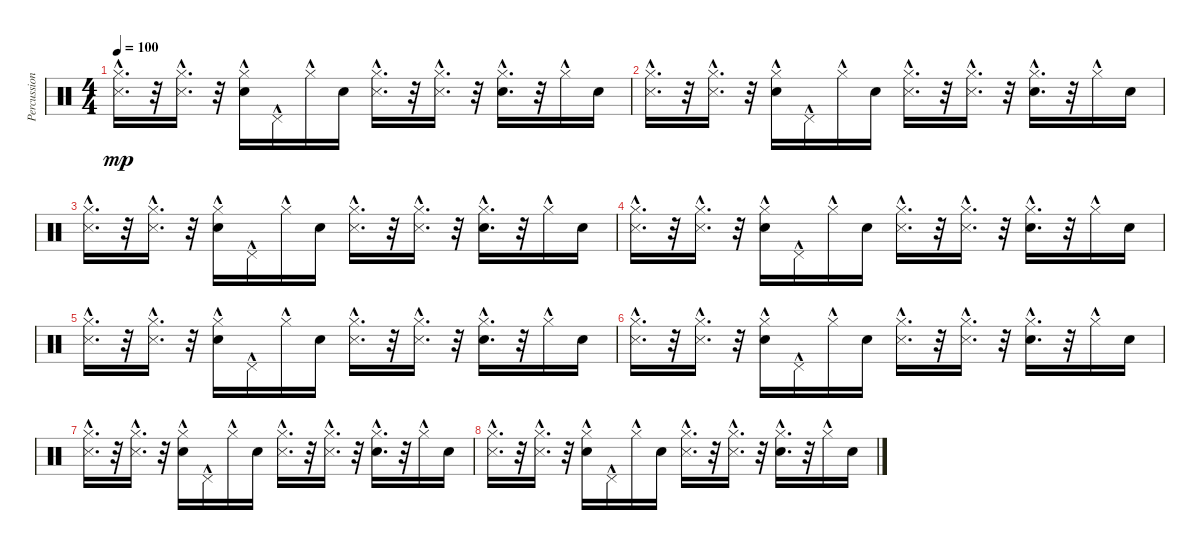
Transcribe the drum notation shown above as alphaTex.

\track ("Percussion" "Percussion") {instrument percussion}
\staff {score}
\articulation defaults
\ts (4 4)
\tempo 100
\clef neutral
\ks c
("Hi-Hat (closed)"{hac} "Metronome (hit)"{hac}).16{d dy mp} r.32 ("Hi-Hat (closed)"{hac} "Metronome (hit)").16{d} r.32 ("Hi-Hat (closed)"{hac} "Metronome (bell)").16 "Pedal Hi-Hat (hit)"{hac}.16 "Hi-Hat (closed)"{hac}.16 "Metronome (bell)".16 ("Metronome (hit)"{hac} "Hi-Hat (closed)"{hac}).16{d} r.32 ("Metronome (hit)" "Hi-Hat (closed)"{hac}).16{d} r.32 ("Metronome (bell)" "Hi-Hat (closed)"{hac}).16{d} r.32 "Hi-Hat (closed)"{hac}.16 "Metronome (bell)".16 |
("Hi-Hat (closed)"{hac} "Metronome (hit)"{hac}).16{d} r.32 ("Hi-Hat (closed)"{hac} "Metronome (hit)").16{d} r.32 ("Hi-Hat (closed)"{hac} "Metronome (bell)").16 "Pedal Hi-Hat (hit)"{hac}.16 "Hi-Hat (closed)"{hac}.16 "Metronome (bell)".16 ("Metronome (hit)"{hac} "Hi-Hat (closed)"{hac}).16{d} r.32 ("Metronome (hit)" "Hi-Hat (closed)"{hac}).16{d} r.32 ("Metronome (bell)" "Hi-Hat (closed)"{hac}).16{d} r.32 "Hi-Hat (closed)"{hac}.16 "Metronome (bell)".16 |
("Hi-Hat (closed)"{hac} "Metronome (hit)"{hac}).16{d} r.32 ("Hi-Hat (closed)"{hac} "Metronome (hit)").16{d} r.32 ("Hi-Hat (closed)"{hac} "Metronome (bell)").16 "Pedal Hi-Hat (hit)"{hac}.16 "Hi-Hat (closed)"{hac}.16 "Metronome (bell)".16 ("Metronome (hit)"{hac} "Hi-Hat (closed)"{hac}).16{d} r.32 ("Metronome (hit)" "Hi-Hat (closed)"{hac}).16{d} r.32 ("Metronome (bell)" "Hi-Hat (closed)"{hac}).16{d} r.32 "Hi-Hat (closed)"{hac}.16 "Metronome (bell)".16 |
("Hi-Hat (closed)"{hac} "Metronome (hit)"{hac}).16{d} r.32 ("Hi-Hat (closed)"{hac} "Metronome (hit)").16{d} r.32 ("Hi-Hat (closed)"{hac} "Metronome (bell)").16 "Pedal Hi-Hat (hit)"{hac}.16 "Hi-Hat (closed)"{hac}.16 "Metronome (bell)".16 ("Metronome (hit)"{hac} "Hi-Hat (closed)"{hac}).16{d} r.32 ("Metronome (hit)" "Hi-Hat (closed)"{hac}).16{d} r.32 ("Metronome (bell)" "Hi-Hat (closed)"{hac}).16{d} r.32 "Hi-Hat (closed)"{hac}.16 "Metronome (bell)".16 |
("Hi-Hat (closed)"{hac} "Metronome (hit)"{hac}).16{d} r.32 ("Hi-Hat (closed)"{hac} "Metronome (hit)").16{d} r.32 ("Hi-Hat (closed)"{hac} "Metronome (bell)").16 "Pedal Hi-Hat (hit)"{hac}.16 "Hi-Hat (closed)"{hac}.16 "Metronome (bell)".16 ("Metronome (hit)"{hac} "Hi-Hat (closed)"{hac}).16{d} r.32 ("Metronome (hit)" "Hi-Hat (closed)"{hac}).16{d} r.32 ("Metronome (bell)" "Hi-Hat (closed)"{hac}).16{d} r.32 "Hi-Hat (closed)"{hac}.16 "Metronome (bell)".16 |
("Hi-Hat (closed)"{hac} "Metronome (hit)"{hac}).16{d} r.32 ("Hi-Hat (closed)"{hac} "Metronome (hit)").16{d} r.32 ("Hi-Hat (closed)"{hac} "Metronome (bell)").16 "Pedal Hi-Hat (hit)"{hac}.16 "Hi-Hat (closed)"{hac}.16 "Metronome (bell)".16 ("Metronome (hit)"{hac} "Hi-Hat (closed)"{hac}).16{d} r.32 ("Metronome (hit)" "Hi-Hat (closed)"{hac}).16{d} r.32 ("Metronome (bell)" "Hi-Hat (closed)"{hac}).16{d} r.32 "Hi-Hat (closed)"{hac}.16 "Metronome (bell)".16 |
("Hi-Hat (closed)"{hac} "Metronome (hit)"{hac}).16{d} r.32 ("Hi-Hat (closed)"{hac} "Metronome (hit)").16{d} r.32 ("Hi-Hat (closed)"{hac} "Metronome (bell)").16 "Pedal Hi-Hat (hit)"{hac}.16 "Hi-Hat (closed)"{hac}.16 "Metronome (bell)".16 ("Metronome (hit)"{hac} "Hi-Hat (closed)"{hac}).16{d} r.32 ("Metronome (hit)" "Hi-Hat (closed)"{hac}).16{d} r.32 ("Metronome (bell)" "Hi-Hat (closed)"{hac}).16{d} r.32 "Hi-Hat (closed)"{hac}.16 "Metronome (bell)".16 |
("Hi-Hat (closed)"{hac} "Metronome (hit)"{hac}).16{d} r.32 ("Hi-Hat (closed)"{hac} "Metronome (hit)").16{d} r.32 ("Hi-Hat (closed)"{hac} "Metronome (bell)").16 "Pedal Hi-Hat (hit)"{hac}.16 "Hi-Hat (closed)"{hac}.16 "Metronome (bell)".16 ("Metronome (hit)"{hac} "Hi-Hat (closed)"{hac}).16{d} r.32 ("Metronome (hit)" "Hi-Hat (closed)"{hac}).16{d} r.32 ("Metronome (bell)" "Hi-Hat (closed)"{hac}).16{d} r.32 "Hi-Hat (closed)"{hac}.16 "Metronome (bell)".16
